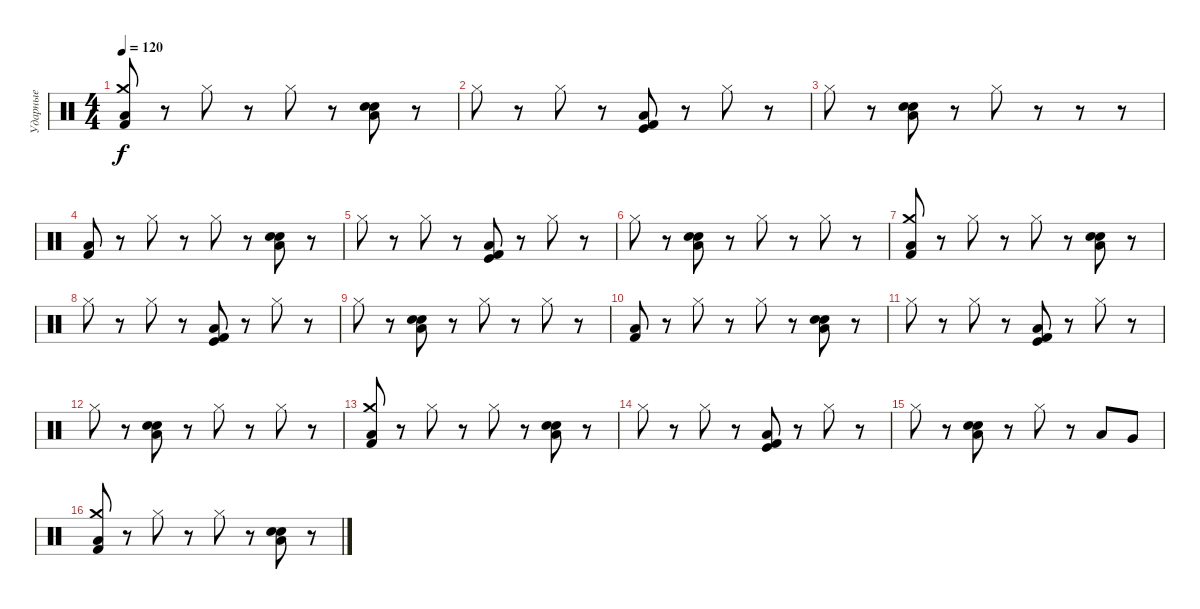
\track ("Ударные" "Ударные") {instrument percussion}
\staff {score}
\articulation defaults
\ts (4 4)
\tempo 120
\clef neutral
\ks c
("Low Floor Tom (hit)" "Crash medium (hit)" "Kick (hit) 2").8{dy f} r.8 "Hi-Hat (closed)".8 r.8 "Hi-Hat (closed)".8 r.8 ("Electric Snare (hit)" "Snare (hit) 2" "Low Floor Tom (hit)").8 r.8 |
"Hi-Hat (closed)".8 r.8 "Hi-Hat (closed)".8 r.8 ("Kick (hit) 2" "Low Floor Tom (hit)" "Kick (hit)").8 r.8 "Hi-Hat (closed)".8 r.8 |
"Hi-Hat (closed)".8 r.8 ("Electric Snare (hit)" "Snare (hit) 2" "Low Floor Tom (hit)").8 r.8 "Hi-Hat (closed)".8 r.8 r.8 r.8 |
("Low Floor Tom (hit)" "Kick (hit) 2").8 r.8 "Hi-Hat (closed)".8 r.8 "Hi-Hat (closed)".8 r.8 ("Electric Snare (hit)" "Snare (hit) 2" "Low Floor Tom (hit)").8 r.8 |
"Hi-Hat (closed)".8 r.8 "Hi-Hat (closed)".8 r.8 ("Kick (hit) 2" "Low Floor Tom (hit)" "Kick (hit)").8 r.8 "Hi-Hat (closed)".8 r.8 |
"Hi-Hat (closed)".8 r.8 ("Electric Snare (hit)" "Snare (hit) 2" "Low Floor Tom (hit)").8 r.8 "Hi-Hat (closed)".8 r.8 "Hi-Hat (closed)".8 r.8 |
("Low Floor Tom (hit)" "Crash medium (hit)" "Kick (hit) 2").8 r.8 "Hi-Hat (closed)".8 r.8 "Hi-Hat (closed)".8 r.8 ("Electric Snare (hit)" "Snare (hit) 2" "Low Floor Tom (hit)").8 r.8 |
"Hi-Hat (closed)".8 r.8 "Hi-Hat (closed)".8 r.8 ("Kick (hit) 2" "Low Floor Tom (hit)" "Kick (hit)").8 r.8 "Hi-Hat (closed)".8 r.8 |
"Hi-Hat (closed)".8 r.8 ("Electric Snare (hit)" "Snare (hit) 2" "Low Floor Tom (hit)").8 r.8 "Hi-Hat (closed)".8 r.8 "Hi-Hat (closed)".8 r.8 |
("Low Floor Tom (hit)" "Kick (hit) 2").8 r.8 "Hi-Hat (closed)".8 r.8 "Hi-Hat (closed)".8 r.8 ("Electric Snare (hit)" "Snare (hit) 2" "Low Floor Tom (hit)").8 r.8 |
"Hi-Hat (closed)".8 r.8 "Hi-Hat (closed)".8 r.8 ("Kick (hit) 2" "Low Floor Tom (hit)" "Kick (hit)").8 r.8 "Hi-Hat (closed)".8 r.8 |
"Hi-Hat (closed)".8 r.8 ("Electric Snare (hit)" "Snare (hit) 2" "Low Floor Tom (hit)").8 r.8 "Hi-Hat (closed)".8 r.8 "Hi-Hat (closed)".8 r.8 |
("Low Floor Tom (hit)" "Crash medium (hit)" "Kick (hit) 2").8 r.8 "Hi-Hat (closed)".8 r.8 "Hi-Hat (closed)".8 r.8 ("Electric Snare (hit)" "Snare (hit) 2" "Low Floor Tom (hit)").8 r.8 |
"Hi-Hat (closed)".8 r.8 "Hi-Hat (closed)".8 r.8 ("Kick (hit) 2" "Low Floor Tom (hit)" "Kick (hit)").8 r.8 "Hi-Hat (closed)".8 r.8 |
"Hi-Hat (closed)".8 r.8 ("Electric Snare (hit)" "Snare (hit) 2" "Low Floor Tom (hit)").8 r.8 "Hi-Hat (closed)".8 r.8 "Low Tom (hit)".8 "Very Low Tom (hit)".8 |
("Low Floor Tom (hit)" "Crash medium (hit)" "Kick (hit) 2").8 r.8 "Hi-Hat (closed)".8 r.8 "Hi-Hat (closed)".8 r.8 ("Electric Snare (hit)" "Snare (hit) 2" "Low Floor Tom (hit)").8 r.8
